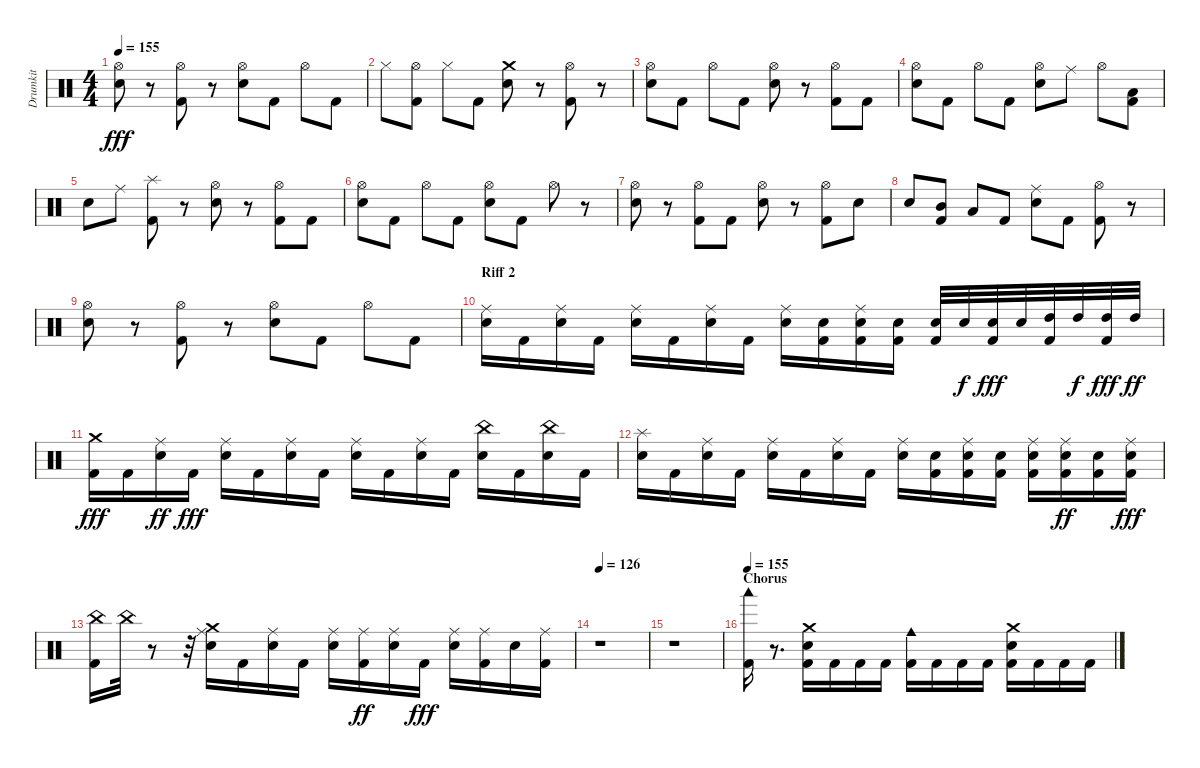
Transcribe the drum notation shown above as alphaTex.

\track ("Drumkit" "Drumkit") {instrument percussion}
\staff {score}
\articulation defaults
\ts (4 4)
\tempo 155
\clef neutral
\ks c
("Snare (hit) 2" "Hi-Hat (open)").8{dy fff} r.8 ("Kick (hit) 2" "Hi-Hat (open)").8 r.8 ("Snare (hit) 2" "Hi-Hat (open)").8 "Kick (hit) 2".8 "Hi-Hat (open)".8 "Kick (hit) 2".8 |
"Hi-Hat (closed)".8 ("Kick (hit) 2" "Hi-Hat (open)").8 "Hi-Hat (closed)".8 "Kick (hit) 2".8 ("Snare (hit) 2" "Crash medium (hit)").8 r.8 ("Kick (hit) 2" "Hi-Hat (open)").8 r.8 |
("Snare (hit) 2" "Hi-Hat (open)").8 "Kick (hit) 2".8 "Hi-Hat (open)".8 "Kick (hit) 2".8 ("Snare (hit) 2" "Hi-Hat (open)").8 r.8 ("Kick (hit) 2" "Hi-Hat (open)").8 "Kick (hit) 2".8 |
("Snare (hit) 2" "Hi-Hat (open)").8 "Kick (hit) 2".8 "Hi-Hat (open)".8 "Kick (hit) 2".8 ("Snare (hit) 2" "Hi-Hat (open)").8 "Ride (middle)".8 "Hi-Hat (open)".8 ("Kick (hit) 2" "Low Tom (hit)").8 |
"Snare (hit) 2".8 "Ride (middle)".8 ("Kick (hit) 2" "Splash (hit)").8 r.8 ("Snare (hit) 2" "Hi-Hat (open)").8 r.8 ("Kick (hit) 2" "Hi-Hat (open)").8 "Kick (hit) 2".8 |
("Snare (hit) 2" "Hi-Hat (open)").8 "Kick (hit) 2".8 "Hi-Hat (open)".8 "Kick (hit) 2".8 ("Snare (hit) 2" "Hi-Hat (open)").8 "Kick (hit) 2".8 "Hi-Hat (open)".8 r.8 |
("Snare (hit) 2" "Hi-Hat (open)").8 r.8 ("Kick (hit) 2" "Hi-Hat (open)").8 "Kick (hit) 2".8 ("Snare (hit) 2" "Hi-Hat (open)").8 r.8 ("Kick (hit) 2" "Hi-Hat (open)").8 "Snare (hit) 2".8 |
"Snare (hit) 2".8 ("Kick (hit) 2" "Mid Tom (hit)").8 "Low Tom (hit)".8 "Kick (hit) 2".8 ("Snare (hit) 2" "Ride (middle)").8 "Kick (hit) 2".8 ("Kick (hit) 2" "Hi-Hat (open)").8 r.8 |
("Snare (hit) 2" "Hi-Hat (open)").8 r.8 ("Kick (hit) 2" "Hi-Hat (open)").8 r.8 ("Snare (hit) 2" "Hi-Hat (open)").8 "Kick (hit) 2".8 "Hi-Hat (open)".8 "Kick (hit) 2".8 |
\section ("" "Riff 2")
("Snare (hit) 2" "Ride (middle)").16 "Kick (hit) 2".16 ("Snare (hit) 2" "Ride (middle)").16 "Kick (hit) 2".16 ("Snare (hit) 2" "Ride (middle)").16 "Kick (hit) 2".16 ("Snare (hit) 2" "Ride (middle)").16 "Kick (hit) 2".16 ("Snare (hit) 2" "Ride (middle)").16 ("Kick (hit) 2" "Snare (hit) 2").16 ("Kick (hit) 2" "Snare (hit) 2" "Ride (middle)").16 ("Kick (hit) 2" "Snare (hit) 2").16 ("Kick (hit) 2" "Snare (hit) 2").32 "Snare (hit) 2".32{dy f} ("Kick (hit) 2" "Snare (hit) 2").32{dy fff} "Snare (hit) 2".32 ("Kick (hit) 2" "High Tom (hit)").32 "High Tom (hit)".32{dy f} ("Kick (hit) 2" "High Tom (hit)").32{dy fff} "High Tom (hit)".32{dy ff} |
("Kick (hit) 2" "Crash medium (hit)").16{dy fff} "Kick (hit) 2".16 ("Snare (hit) 2" "Ride (middle)").16{dy ff} "Kick (hit) 2".16{dy fff} ("Snare (hit) 2" "Ride (middle)").16 "Kick (hit) 2".16 ("Snare (hit) 2" "Ride (middle)").16 "Kick (hit) 2".16 ("Snare (hit) 2" "Ride (middle)").16 "Kick (hit) 2".16 ("Snare (hit) 2" "Ride (middle)").16 "Kick (hit) 2".16 ("Snare (hit) 2" "China (hit)").16 "Kick (hit) 2".16 ("Snare (hit) 2" "China (hit)").16 "Kick (hit) 2".16 |
("Snare (hit) 2" "Splash (hit)").16 "Kick (hit) 2".16 ("Snare (hit) 2" "Ride (middle)").16 "Kick (hit) 2".16 ("Snare (hit) 2" "Ride (middle)").16 "Kick (hit) 2".16 ("Snare (hit) 2" "Ride (middle)").16 "Kick (hit) 2".16 ("Snare (hit) 2" "Ride (middle)").16 ("Kick (hit) 2" "Snare (hit) 2").16 ("Kick (hit) 2" "Snare (hit) 2" "Ride (middle)").16 ("Kick (hit) 2" "Snare (hit) 2").16 ("Kick (hit) 2" "Snare (hit) 2" "Ride (middle)").16 ("Kick (hit) 2" "Snare (hit) 2" "Ride (middle)").16{dy ff} ("Kick (hit) 2" "Snare (hit) 2").16 ("Kick (hit) 2" "Snare (hit) 2" "Ride (middle)").16{dy fff} |
("Kick (hit) 2" "China (hit)").16 "China (hit)".32 r.8 r.32 ("Snare (hit) 2" "Ride (middle)" "Crash medium (hit)").16 "Kick (hit) 2".16 ("Snare (hit) 2" "Ride (middle)").16 "Kick (hit) 2".16 ("Snare (hit) 2" "Ride (middle)").16 ("Kick (hit) 2" "Ride (middle)").16{dy ff} ("Snare (hit) 2" "Ride (middle)").16 "Kick (hit) 2".16{dy fff} ("Snare (hit) 2" "Ride (middle)").16 ("Kick (hit) 2" "Ride (middle)").16 "Snare (hit) 2".16 ("Kick (hit) 2" "Ride (middle)").16 |
\tempo 126
r.1 |
r.1 |
\section ("" "Chorus")
\tempo 155
("Kick (hit) 2" "Woodblock low (hit)").16 r.8{d} ("Kick (hit) 2" "Snare (hit) 2" "Crash medium (hit)").16 "Kick (hit) 2".16 "Kick (hit) 2".16 "Kick (hit) 2".16 ("Kick (hit) 2" "Cowbell medium (hit)").16 "Kick (hit) 2".16 "Kick (hit) 2".16 "Kick (hit) 2".16 ("Kick (hit) 2" "Snare (hit) 2" "Crash medium (hit)").16 "Kick (hit) 2".16 "Kick (hit) 2".16 "Kick (hit) 2".16
